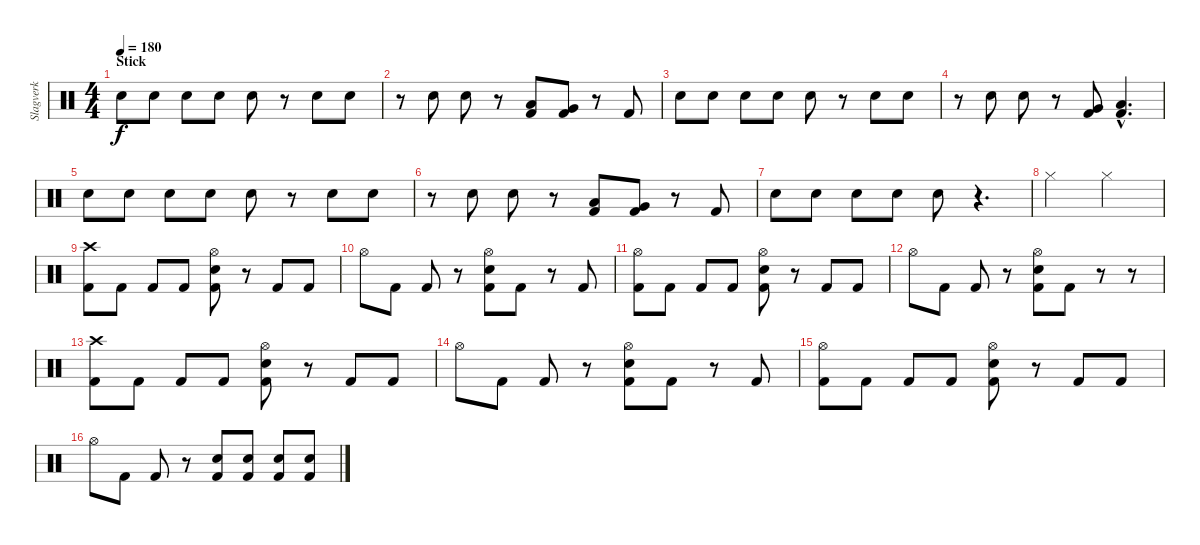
\track ("Slagverk" "Slagverk") {instrument percussion}
\staff {score}
\articulation defaults
\ts (4 4)
\section ("" "Stick")
\tempo 180
\clef neutral
\ks c "Snare (hit) 2".8{dy f} "Snare (hit) 2".8 "Snare (hit) 2".8 "Snare (hit) 2".8 "Snare (hit) 2".8
r.8 "Snare (hit) 2".8 "Snare (hit) 2".8 |
r.8 "Snare (hit) 2".8 "Snare (hit) 2".8 r.8 ("Kick (hit) 2" "Low Floor Tom (hit)").8 ("Kick (hit) 2" "Very Low Tom (hit)").8 r.8 "Kick (hit) 2".8 |
"Snare (hit) 2".8 "Snare (hit) 2".8 "Snare (hit) 2".8 "Snare (hit) 2".8 "Snare (hit) 2".8 r.8 "Snare (hit) 2".8 "Snare (hit) 2".8 |
r.8 "Snare (hit) 2".8 "Snare (hit) 2".8 r.8 ("Kick (hit) 2" "Very Low Tom (hit)").8 ("Kick (hit) 2"{hac} "Low Floor Tom (hit)"{hac}).4{d} |
"Snare (hit) 2".8 "Snare (hit) 2".8 "Snare (hit) 2".8 "Snare (hit) 2".8 "Snare (hit) 2".8 r.8 "Snare (hit) 2".8 "Snare (hit) 2".8 |
r.8 "Snare (hit) 2".8 "Snare (hit) 2".8 r.8 ("Kick (hit) 2" "Low Floor Tom (hit)").8 ("Kick (hit) 2" "Very Low Tom (hit)").8 r.8 "Kick (hit) 2".8 |
"Snare (hit) 2".8 "Snare (hit) 2".8 "Snare (hit) 2".8 "Snare (hit) 2".8 "Snare (hit) 2".8 r.4{d} |
"Hi-Hat (closed)".2 "Hi-Hat (closed)".2 |
("Kick (hit) 2" "Crash high (hit)").8 "Kick (hit) 2".8 "Kick (hit) 2".8 "Kick (hit) 2".8 ("Kick (hit) 2" "Snare (hit) 2" "Hi-Hat (open)").8 r.8 "Kick (hit) 2".8 "Kick (hit) 2".8 |
"Hi-Hat (open)".8 "Kick (hit) 2".8 "Kick (hit) 2".8 r.8 ("Kick (hit) 2" "Snare (hit) 2" "Hi-Hat (open)").8 "Kick (hit) 2".8 r.8 "Kick (hit) 2".8 |
("Kick (hit) 2" "Hi-Hat (open)").8 "Kick (hit) 2".8 "Kick (hit) 2".8 "Kick (hit) 2".8 ("Kick (hit) 2" "Snare (hit) 2" "Hi-Hat (open)").8 r.8 "Kick (hit) 2".8 "Kick (hit) 2".8 |
"Hi-Hat (open)".8 "Kick (hit) 2".8 "Kick (hit) 2".8 r.8 ("Kick (hit) 2" "Snare (hit) 2" "Hi-Hat (open)").8 "Kick (hit) 2".8 r.8 r.8 |
("Kick (hit) 2" "Crash high (hit)").8 "Kick (hit) 2".8 "Kick (hit) 2".8 "Kick (hit) 2".8 ("Kick (hit) 2" "Snare (hit) 2" "Hi-Hat (open)").8 r.8 "Kick (hit) 2".8 "Kick (hit) 2".8 |
"Hi-Hat (open)".8 "Kick (hit) 2".8 "Kick (hit) 2".8 r.8 ("Kick (hit) 2" "Snare (hit) 2" "Hi-Hat (open)").8 "Kick (hit) 2".8 r.8 "Kick (hit) 2".8 |
("Kick (hit) 2" "Hi-Hat (open)").8 "Kick (hit) 2".8 "Kick (hit) 2".8 "Kick (hit) 2".8 ("Kick (hit) 2" "Snare (hit) 2" "Hi-Hat (open)").8 r.8 "Kick (hit) 2".8 "Kick (hit) 2".8 |
"Hi-Hat (open)".8 "Kick (hit) 2".8 "Kick (hit) 2".8 r.8 ("Kick (hit) 2" "Snare (hit) 2").8 ("Kick (hit) 2" "Snare (hit) 2").8 ("Kick (hit) 2" "Snare (hit) 2").8 ("Kick (hit) 2" "Snare (hit) 2").8
